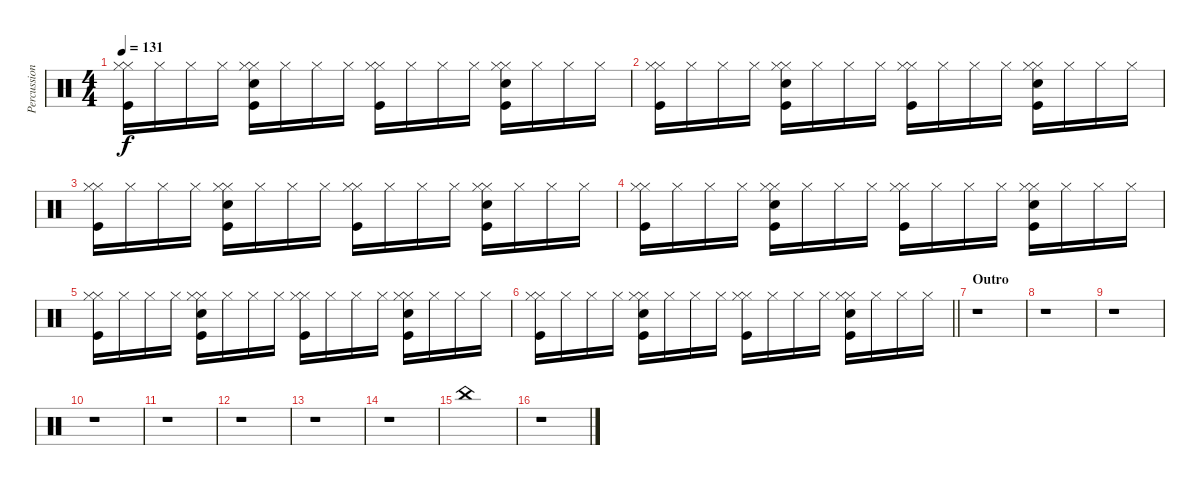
\track ("Percussion I" "Percussion") {instrument percussion}
\staff {score}
\articulation defaults
\ts (4 4)
\tempo 131
\clef neutral
\ks c
("Hi-Hat (closed)" "Hi-Hat (closed)" "Kick (hit)").16{dy f} "Hi-Hat (closed)".16 "Hi-Hat (closed)".16 "Hi-Hat (closed)".16 ("Hi-Hat (closed)" "Hand Clap (hit)" "Hi-Hat (closed)" "Kick (hit)").16 "Hi-Hat (closed)".16 "Hi-Hat (closed)".16 "Hi-Hat (closed)".16 ("Hi-Hat (closed)" "Hi-Hat (closed)" "Kick (hit)").16 "Hi-Hat (closed)".16 "Hi-Hat (closed)".16 "Hi-Hat (closed)".16 ("Hi-Hat (closed)" "Hand Clap (hit)" "Hi-Hat (closed)" "Kick (hit)").16 "Hi-Hat (closed)".16 "Hi-Hat (closed)".16 "Hi-Hat (closed)".16 |
("Hi-Hat (closed)" "Hi-Hat (closed)" "Kick (hit)").16 "Hi-Hat (closed)".16 "Hi-Hat (closed)".16 "Hi-Hat (closed)".16 ("Hi-Hat (closed)" "Hand Clap (hit)" "Hi-Hat (closed)" "Kick (hit)").16 "Hi-Hat (closed)".16 "Hi-Hat (closed)".16 "Hi-Hat (closed)".16 ("Hi-Hat (closed)" "Hi-Hat (closed)" "Kick (hit)").16 "Hi-Hat (closed)".16 "Hi-Hat (closed)".16 "Hi-Hat (closed)".16 ("Hi-Hat (closed)" "Hand Clap (hit)" "Hi-Hat (closed)" "Kick (hit)").16 "Hi-Hat (closed)".16 "Hi-Hat (closed)".16 "Hi-Hat (closed)".16 |
("Hi-Hat (closed)" "Hi-Hat (closed)" "Kick (hit)").16 "Hi-Hat (closed)".16 "Hi-Hat (closed)".16 "Hi-Hat (closed)".16 ("Hi-Hat (closed)" "Hand Clap (hit)" "Hi-Hat (closed)" "Kick (hit)").16 "Hi-Hat (closed)".16 "Hi-Hat (closed)".16 "Hi-Hat (closed)".16 ("Hi-Hat (closed)" "Hi-Hat (closed)" "Kick (hit)").16 "Hi-Hat (closed)".16 "Hi-Hat (closed)".16 "Hi-Hat (closed)".16 ("Hi-Hat (closed)" "Hand Clap (hit)" "Hi-Hat (closed)" "Kick (hit)").16 "Hi-Hat (closed)".16 "Hi-Hat (closed)".16 "Hi-Hat (closed)".16 |
("Hi-Hat (closed)" "Hi-Hat (closed)" "Kick (hit)").16 "Hi-Hat (closed)".16 "Hi-Hat (closed)".16 "Hi-Hat (closed)".16 ("Hi-Hat (closed)" "Hand Clap (hit)" "Hi-Hat (closed)" "Kick (hit)").16 "Hi-Hat (closed)".16 "Hi-Hat (closed)".16 "Hi-Hat (closed)".16 ("Hi-Hat (closed)" "Hi-Hat (closed)" "Kick (hit)").16 "Hi-Hat (closed)".16 "Hi-Hat (closed)".16 "Hi-Hat (closed)".16 ("Hi-Hat (closed)" "Hand Clap (hit)" "Hi-Hat (closed)" "Kick (hit)").16 "Hi-Hat (closed)".16 "Hi-Hat (closed)".16 "Hi-Hat (closed)".16 |
("Hi-Hat (closed)" "Hi-Hat (closed)" "Kick (hit)").16 "Hi-Hat (closed)".16 "Hi-Hat (closed)".16 "Hi-Hat (closed)".16 ("Hi-Hat (closed)" "Hand Clap (hit)" "Hi-Hat (closed)" "Kick (hit)").16 "Hi-Hat (closed)".16 "Hi-Hat (closed)".16 "Hi-Hat (closed)".16 ("Hi-Hat (closed)" "Hi-Hat (closed)" "Kick (hit)").16 "Hi-Hat (closed)".16 "Hi-Hat (closed)".16 "Hi-Hat (closed)".16 ("Hi-Hat (closed)" "Hand Clap (hit)" "Hi-Hat (closed)" "Kick (hit)").16 "Hi-Hat (closed)".16 "Hi-Hat (closed)".16 "Hi-Hat (closed)".16 |
\barLineRight lightlight
("Hi-Hat (closed)" "Hi-Hat (closed)" "Kick (hit)").16 "Hi-Hat (closed)".16 "Hi-Hat (closed)".16 "Hi-Hat (closed)".16 ("Hi-Hat (closed)" "Hand Clap (hit)" "Hi-Hat (closed)" "Kick (hit)").16 "Hi-Hat (closed)".16 "Hi-Hat (closed)".16 "Hi-Hat (closed)".16 ("Hi-Hat (closed)" "Hi-Hat (closed)" "Kick (hit)").16 "Hi-Hat (closed)".16 "Hi-Hat (closed)".16 "Hi-Hat (closed)".16 ("Hi-Hat (closed)" "Hand Clap (hit)" "Hi-Hat (closed)" "Kick (hit)").16 "Hi-Hat (closed)".16 "Hi-Hat (closed)".16 "Hi-Hat (closed)".16 |
\section ("" "Outro")
r.1 |
r.1 |
r.1 |
r.1 |
r.1 |
r.1 |
r.1 |
r.1 |
"China (hit)".1{volume 16} |
r.1
